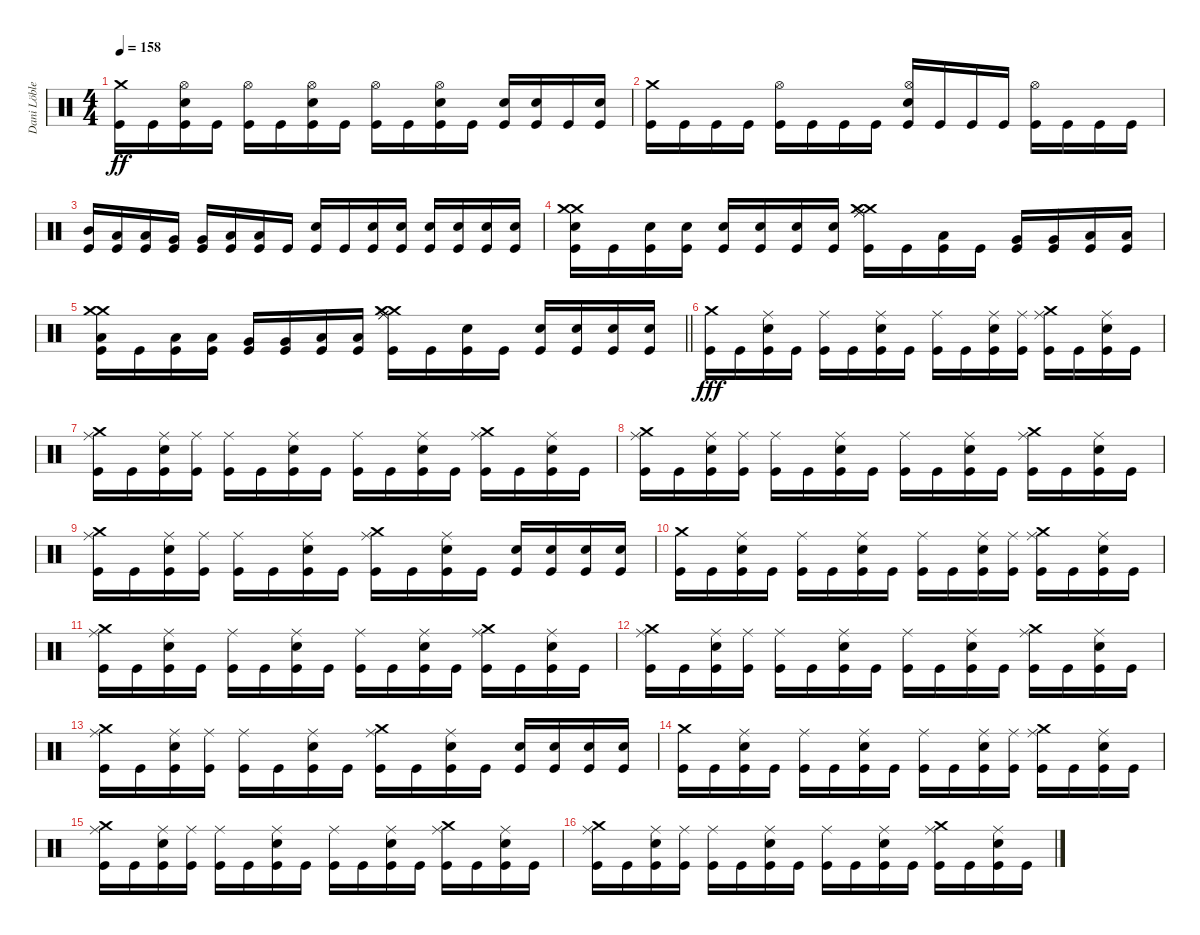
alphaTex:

\track ("Dani Löble" "Dani Löble") {instrument percussion}
\staff {score}
\articulation defaults
\ts (4 4)
\tempo 158
\clef neutral
\ks c
("Crash medium (hit)" "Kick (hit)").16{dy ff} "Kick (hit)".16 ("Hi-Hat (open)" "Electric Snare (hit)" "Kick (hit)").16 "Kick (hit)".16 ("Hi-Hat (open)" "Kick (hit)").16 "Kick (hit)".16 ("Hi-Hat (open)" "Electric Snare (hit)" "Kick (hit)").16 "Kick (hit)".16 ("Hi-Hat (open)" "Kick (hit)").16 "Kick (hit)".16 ("Hi-Hat (open)" "Electric Snare (hit)" "Kick (hit)").16 "Kick (hit)".16 ("Electric Snare (hit)" "Kick (hit)").16 ("Electric Snare (hit)" "Kick (hit)").16 "Kick (hit)".16 ("Electric Snare (hit)" "Kick (hit)").16 |
("Crash medium (hit)" "Kick (hit)").16 "Kick (hit)".16 "Kick (hit)".16 "Kick (hit)".16 ("Hi-Hat (open)" "Kick (hit)").16 "Kick (hit)".16 "Kick (hit)".16 "Kick (hit)".16 ("Hi-Hat (open)" "Electric Snare (hit)" "Kick (hit)").16 "Kick (hit)".16 "Kick (hit)".16 "Kick (hit)".16 ("Hi-Hat (open)" "Kick (hit)").16 "Kick (hit)".16 "Kick (hit)".16 "Kick (hit)".16 |
("Mid Tom (hit)" "Kick (hit)").16 ("Low Tom (hit)" "Kick (hit)").16 ("Low Tom (hit)" "Kick (hit)").16 ("Very Low Tom (hit)" "Kick (hit)").16 ("Very Low Tom (hit)" "Kick (hit)").16 ("Low Floor Tom (hit)" "Kick (hit)").16 ("Low Floor Tom (hit)" "Kick (hit)").16 "Kick (hit)".16 ("Electric Snare (hit)" "Kick (hit)").16 "Kick (hit)".16 ("Electric Snare (hit)" "Kick (hit)").16 ("Electric Snare (hit)" "Kick (hit)").16 ("Electric Snare (hit)" "Kick (hit)").16 ("Electric Snare (hit)" "Kick (hit)").16 ("Electric Snare (hit)" "Kick (hit)").16 ("Electric Snare (hit)" "Kick (hit)").16 |
("Crash medium (hit)" "Crash medium (hit)" "Electric Snare (hit)" "Kick (hit)").16 "Kick (hit)".16 ("Electric Snare (hit)" "Kick (hit)").16 ("Electric Snare (hit)" "Kick (hit)").16 ("Electric Snare (hit)" "Kick (hit)").16 ("Electric Snare (hit)" "Kick (hit)").16 ("Electric Snare (hit)" "Kick (hit)").16 ("Electric Snare (hit)" "Kick (hit)").16 ("Crash medium (hit)" "Ride (middle)" "Ride (middle)" "Crash medium (hit)" "Kick (hit)").16 "Kick (hit)".16 ("Low Tom (hit)" "Kick (hit)").16 "Kick (hit)".16 ("Very Low Tom (hit)" "Kick (hit)").16 ("Very Low Tom (hit)" "Kick (hit)").16 ("Low Floor Tom (hit)" "Kick (hit)").16 ("Low Floor Tom (hit)" "Kick (hit)").16 |
\barLineRight lightlight
("Crash medium (hit)" "Crash medium (hit)" "Low Tom (hit)" "Kick (hit)").16 "Kick (hit)".16 ("Low Tom (hit)" "Kick (hit)").16 ("Low Tom (hit)" "Kick (hit)").16 ("Very Low Tom (hit)" "Kick (hit)").16 ("Very Low Tom (hit)" "Kick (hit)").16 ("Low Floor Tom (hit)" "Kick (hit)").16 ("Low Floor Tom (hit)" "Kick (hit)").16 ("Crash medium (hit)" "Ride (middle)" "Ride (middle)" "Crash medium (hit)" "Kick (hit)").16 "Kick (hit)".16 ("Electric Snare (hit)" "Kick (hit)").16 "Kick (hit)".16 ("Electric Snare (hit)" "Kick (hit)").16 ("Electric Snare (hit)" "Kick (hit)").16 ("Electric Snare (hit)" "Kick (hit)").16 ("Electric Snare (hit)" "Kick (hit)").16 |
\section ("" "")
("Crash medium (hit)" "Kick (hit)").16{dy fff} "Kick (hit)".16 ("Ride (middle)" "Electric Snare (hit)" "Kick (hit)").16 "Kick (hit)".16 ("Ride (middle)" "Kick (hit)").16 "Kick (hit)".16 ("Ride (middle)" "Electric Snare (hit)" "Kick (hit)").16 "Kick (hit)".16 ("Ride (middle)" "Kick (hit)").16 "Kick (hit)".16 ("Ride (middle)" "Electric Snare (hit)" "Kick (hit)").16 ("Ride (middle)" "Kick (hit)").16 ("Ride (middle)" "Crash medium (hit)" "Kick (hit)").16 "Kick (hit)".16 ("Ride (middle)" "Electric Snare (hit)" "Kick (hit)").16 "Kick (hit)".16 |
("Crash medium (hit)" "Ride (middle)" "Kick (hit)").16 "Kick (hit)".16 ("Ride (middle)" "Electric Snare (hit)" "Kick (hit)").16 ("Ride (middle)" "Kick (hit)").16 ("Ride (middle)" "Kick (hit)").16 "Kick (hit)".16 ("Ride (middle)" "Electric Snare (hit)" "Kick (hit)").16 "Kick (hit)".16 ("Ride (middle)" "Kick (hit)").16 "Kick (hit)".16 ("Ride (middle)" "Electric Snare (hit)" "Kick (hit)").16 "Kick (hit)".16 ("Ride (middle)" "Crash medium (hit)" "Kick (hit)").16 "Kick (hit)".16 ("Ride (middle)" "Electric Snare (hit)" "Kick (hit)").16 "Kick (hit)".16 |
("Crash medium (hit)" "Ride (middle)" "Kick (hit)").16 "Kick (hit)".16 ("Ride (middle)" "Electric Snare (hit)" "Kick (hit)").16 ("Ride (middle)" "Kick (hit)").16 ("Ride (middle)" "Kick (hit)").16 "Kick (hit)".16 ("Ride (middle)" "Electric Snare (hit)" "Kick (hit)").16 "Kick (hit)".16 ("Ride (middle)" "Kick (hit)").16 "Kick (hit)".16 ("Ride (middle)" "Electric Snare (hit)" "Kick (hit)").16 "Kick (hit)".16 ("Ride (middle)" "Crash medium (hit)" "Kick (hit)").16 "Kick (hit)".16 ("Ride (middle)" "Electric Snare (hit)" "Kick (hit)").16 "Kick (hit)".16 |
("Crash medium (hit)" "Ride (middle)" "Kick (hit)").16 "Kick (hit)".16 ("Ride (middle)" "Electric Snare (hit)" "Kick (hit)").16 ("Ride (middle)" "Kick (hit)").16 ("Ride (middle)" "Kick (hit)").16 "Kick (hit)".16 ("Ride (middle)" "Electric Snare (hit)" "Kick (hit)").16 "Kick (hit)".16 ("Ride (middle)" "Crash medium (hit)" "Kick (hit)").16 "Kick (hit)".16 ("Ride (middle)" "Electric Snare (hit)" "Kick (hit)").16 "Kick (hit)".16 ("Electric Snare (hit)" "Kick (hit)").16 ("Electric Snare (hit)" "Kick (hit)").16 ("Electric Snare (hit)" "Kick (hit)").16 ("Electric Snare (hit)" "Kick (hit)").16 |
("Crash medium (hit)" "Kick (hit)").16 "Kick (hit)".16 ("Ride (middle)" "Electric Snare (hit)" "Kick (hit)").16 "Kick (hit)".16 ("Ride (middle)" "Kick (hit)").16 "Kick (hit)".16 ("Ride (middle)" "Electric Snare (hit)" "Kick (hit)").16 "Kick (hit)".16 ("Ride (middle)" "Kick (hit)").16 "Kick (hit)".16 ("Ride (middle)" "Electric Snare (hit)" "Kick (hit)").16 ("Ride (middle)" "Kick (hit)").16 ("Ride (middle)" "Crash medium (hit)" "Kick (hit)").16 "Kick (hit)".16 ("Ride (middle)" "Electric Snare (hit)" "Kick (hit)").16 "Kick (hit)".16 |
("Crash medium (hit)" "Ride (middle)" "Kick (hit)").16 "Kick (hit)".16 ("Ride (middle)" "Electric Snare (hit)" "Kick (hit)").16 "Kick (hit)".16 ("Ride (middle)" "Kick (hit)").16 "Kick (hit)".16 ("Ride (middle)" "Electric Snare (hit)" "Kick (hit)").16 "Kick (hit)".16 ("Ride (middle)" "Kick (hit)").16 "Kick (hit)".16 ("Ride (middle)" "Electric Snare (hit)" "Kick (hit)").16 "Kick (hit)".16 ("Ride (middle)" "Crash medium (hit)" "Kick (hit)").16 "Kick (hit)".16 ("Ride (middle)" "Electric Snare (hit)" "Kick (hit)").16 "Kick (hit)".16 |
("Crash medium (hit)" "Ride (middle)" "Kick (hit)").16 "Kick (hit)".16 ("Ride (middle)" "Electric Snare (hit)" "Kick (hit)").16 ("Ride (middle)" "Kick (hit)").16 ("Ride (middle)" "Kick (hit)").16 "Kick (hit)".16 ("Ride (middle)" "Electric Snare (hit)" "Kick (hit)").16 "Kick (hit)".16 ("Ride (middle)" "Kick (hit)").16 "Kick (hit)".16 ("Ride (middle)" "Electric Snare (hit)" "Kick (hit)").16 "Kick (hit)".16 ("Ride (middle)" "Crash medium (hit)" "Kick (hit)").16 "Kick (hit)".16 ("Ride (middle)" "Electric Snare (hit)" "Kick (hit)").16 "Kick (hit)".16 |
("Crash medium (hit)" "Ride (middle)" "Kick (hit)").16 "Kick (hit)".16 ("Ride (middle)" "Electric Snare (hit)" "Kick (hit)").16 ("Ride (middle)" "Kick (hit)").16 ("Ride (middle)" "Kick (hit)").16 "Kick (hit)".16 ("Ride (middle)" "Electric Snare (hit)" "Kick (hit)").16 "Kick (hit)".16 ("Ride (middle)" "Crash medium (hit)" "Kick (hit)").16 "Kick (hit)".16 ("Ride (middle)" "Electric Snare (hit)" "Kick (hit)").16 "Kick (hit)".16 ("Electric Snare (hit)" "Kick (hit)").16 ("Electric Snare (hit)" "Kick (hit)").16 ("Electric Snare (hit)" "Kick (hit)").16 ("Electric Snare (hit)" "Kick (hit)").16 |
("Crash medium (hit)" "Kick (hit)").16 "Kick (hit)".16 ("Ride (middle)" "Electric Snare (hit)" "Kick (hit)").16 "Kick (hit)".16 ("Ride (middle)" "Kick (hit)").16 "Kick (hit)".16 ("Ride (middle)" "Electric Snare (hit)" "Kick (hit)").16 "Kick (hit)".16 ("Ride (middle)" "Kick (hit)").16 "Kick (hit)".16 ("Ride (middle)" "Electric Snare (hit)" "Kick (hit)").16 ("Ride (middle)" "Kick (hit)").16 ("Ride (middle)" "Crash medium (hit)" "Kick (hit)").16 "Kick (hit)".16 ("Ride (middle)" "Electric Snare (hit)" "Kick (hit)").16 "Kick (hit)".16 |
("Crash medium (hit)" "Ride (middle)" "Kick (hit)").16 "Kick (hit)".16 ("Ride (middle)" "Electric Snare (hit)" "Kick (hit)").16 ("Ride (middle)" "Kick (hit)").16 ("Ride (middle)" "Kick (hit)").16 "Kick (hit)".16 ("Ride (middle)" "Electric Snare (hit)" "Kick (hit)").16 "Kick (hit)".16 ("Ride (middle)" "Kick (hit)").16 "Kick (hit)".16 ("Ride (middle)" "Electric Snare (hit)" "Kick (hit)").16 "Kick (hit)".16 ("Ride (middle)" "Crash medium (hit)" "Kick (hit)").16 "Kick (hit)".16 ("Ride (middle)" "Electric Snare (hit)" "Kick (hit)").16 "Kick (hit)".16 |
("Crash medium (hit)" "Ride (middle)" "Kick (hit)").16 "Kick (hit)".16 ("Ride (middle)" "Electric Snare (hit)" "Kick (hit)").16 ("Ride (middle)" "Kick (hit)").16 ("Ride (middle)" "Kick (hit)").16 "Kick (hit)".16 ("Ride (middle)" "Electric Snare (hit)" "Kick (hit)").16 "Kick (hit)".16 ("Ride (middle)" "Kick (hit)").16 "Kick (hit)".16 ("Ride (middle)" "Electric Snare (hit)" "Kick (hit)").16 "Kick (hit)".16 ("Ride (middle)" "Crash medium (hit)" "Kick (hit)").16 "Kick (hit)".16 ("Ride (middle)" "Electric Snare (hit)" "Kick (hit)").16 "Kick (hit)".16
